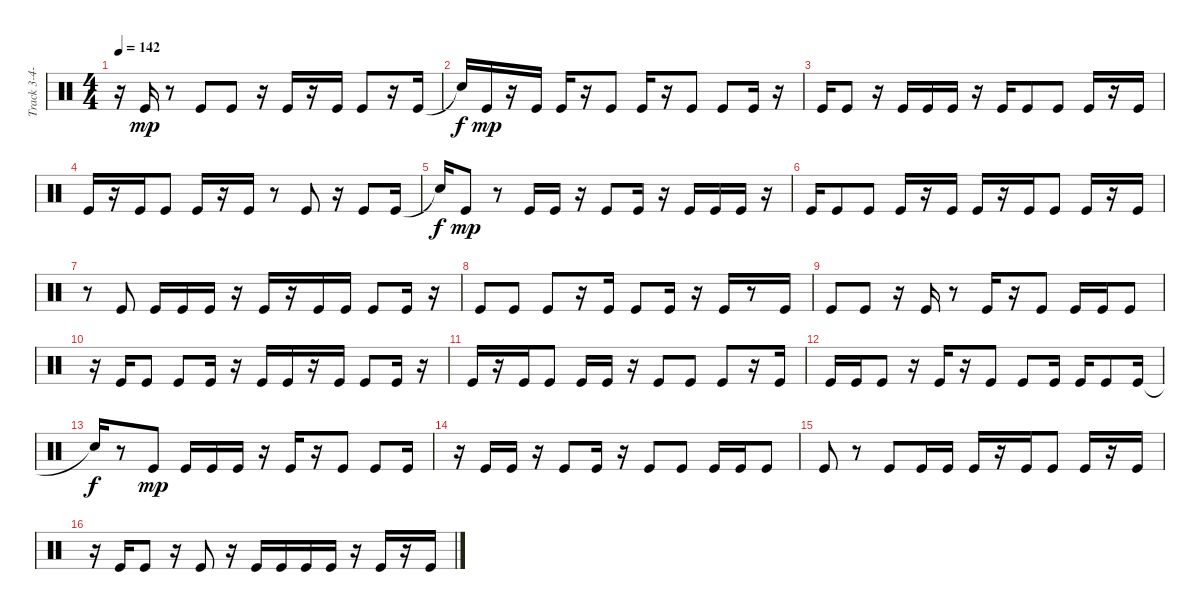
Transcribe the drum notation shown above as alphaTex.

\track ("Track 3-4-5-6-7" "Track 3-4-") {instrument percussion}
\staff {score}
\articulation defaults
\ts (4 4)
\tempo 142
\clef neutral
\ks c
r.16{dy mp} "Kick (hit)".16 r.8 "Kick (hit)".8 "Kick (hit)".8 r.16 "Kick (hit)".16 r.16 "Kick (hit)".16 "Kick (hit)".8 r.16 "Kick (hit)".16 |
"Snare (hit)"{t}.16{dy f} "Kick (hit)".16{dy mp} r.16 "Kick (hit)".16 "Kick (hit)".16 r.16 "Kick (hit)".8 "Kick (hit)".16 r.16 "Kick (hit)".8 "Kick (hit)".8 "Kick (hit)".16 r.16 |
"Kick (hit)".16 "Kick (hit)".8 r.16 "Kick (hit)".16 "Kick (hit)".16 "Kick (hit)".16 r.16 "Kick (hit)".16 "Kick (hit)".8 "Kick (hit)".8 "Kick (hit)".16 r.16 "Kick (hit)".16 |
"Kick (hit)".16 r.16 "Kick (hit)".16 "Kick (hit)".8 "Kick (hit)".16 r.16 "Kick (hit)".16 r.8 "Kick (hit)".8 r.16 "Kick (hit)".8 "Kick (hit)".16 |
"Snare (hit)"{t}.16{dy f} "Kick (hit)".8{dy mp} r.8 "Kick (hit)".16 "Kick (hit)".16 r.16 "Kick (hit)".8 "Kick (hit)".16 r.16 "Kick (hit)".16 "Kick (hit)".16 "Kick (hit)".16 r.16 |
"Kick (hit)".16 "Kick (hit)".8 "Kick (hit)".8 "Kick (hit)".16 r.16 "Kick (hit)".16 "Kick (hit)".16 r.16 "Kick (hit)".16 "Kick (hit)".8 "Kick (hit)".16 r.16 "Kick (hit)".16 |
r.8 "Kick (hit)".8 "Kick (hit)".16 "Kick (hit)".16 "Kick (hit)".16 r.16 "Kick (hit)".16 r.16 "Kick (hit)".16 "Kick (hit)".16 "Kick (hit)".8 "Kick (hit)".16 r.16 |
"Kick (hit)".8 "Kick (hit)".8 "Kick (hit)".8 r.16 "Kick (hit)".16 "Kick (hit)".8 "Kick (hit)".16 r.16 "Kick (hit)".16 r.8 "Kick (hit)".16 |
"Kick (hit)".8 "Kick (hit)".8 r.16 "Kick (hit)".16 r.8 "Kick (hit)".16 r.16 "Kick (hit)".8 "Kick (hit)".16 "Kick (hit)".16 "Kick (hit)".8 |
r.16 "Kick (hit)".16 "Kick (hit)".8 "Kick (hit)".8 "Kick (hit)".16 r.16 "Kick (hit)".16 "Kick (hit)".16 r.16 "Kick (hit)".16 "Kick (hit)".8 "Kick (hit)".16 r.16 |
"Kick (hit)".16 r.16 "Kick (hit)".16 "Kick (hit)".8 "Kick (hit)".16 "Kick (hit)".16 r.16 "Kick (hit)".8 "Kick (hit)".8 "Kick (hit)".8 r.16 "Kick (hit)".16 |
"Kick (hit)".16 "Kick (hit)".16 "Kick (hit)".8 r.16 "Kick (hit)".16 r.16 "Kick (hit)".8 "Kick (hit)".8 "Kick (hit)".16 "Kick (hit)".16 "Kick (hit)".8 "Kick (hit)".16 |
"Snare (hit)"{t}.16{dy f} r.8 "Kick (hit)".8{dy mp} "Kick (hit)".16 "Kick (hit)".16 "Kick (hit)".16 r.16 "Kick (hit)".16 r.16 "Kick (hit)".8 "Kick (hit)".8 "Kick (hit)".16 |
r.16 "Kick (hit)".16 "Kick (hit)".16 r.16 "Kick (hit)".8 "Kick (hit)".16 r.16 "Kick (hit)".8 "Kick (hit)".8 "Kick (hit)".16 "Kick (hit)".16 "Kick (hit)".8 |
"Kick (hit)".8 r.8 "Kick (hit)".8 "Kick (hit)".16 "Kick (hit)".16 "Kick (hit)".16 r.16 "Kick (hit)".16 "Kick (hit)".8 "Kick (hit)".16 r.16 "Kick (hit)".16 |
r.16 "Kick (hit)".16 "Kick (hit)".8 r.16 "Kick (hit)".8 r.16 "Kick (hit)".16 "Kick (hit)".16 "Kick (hit)".16 "Kick (hit)".16 r.16 "Kick (hit)".16 r.16 "Kick (hit)".16
